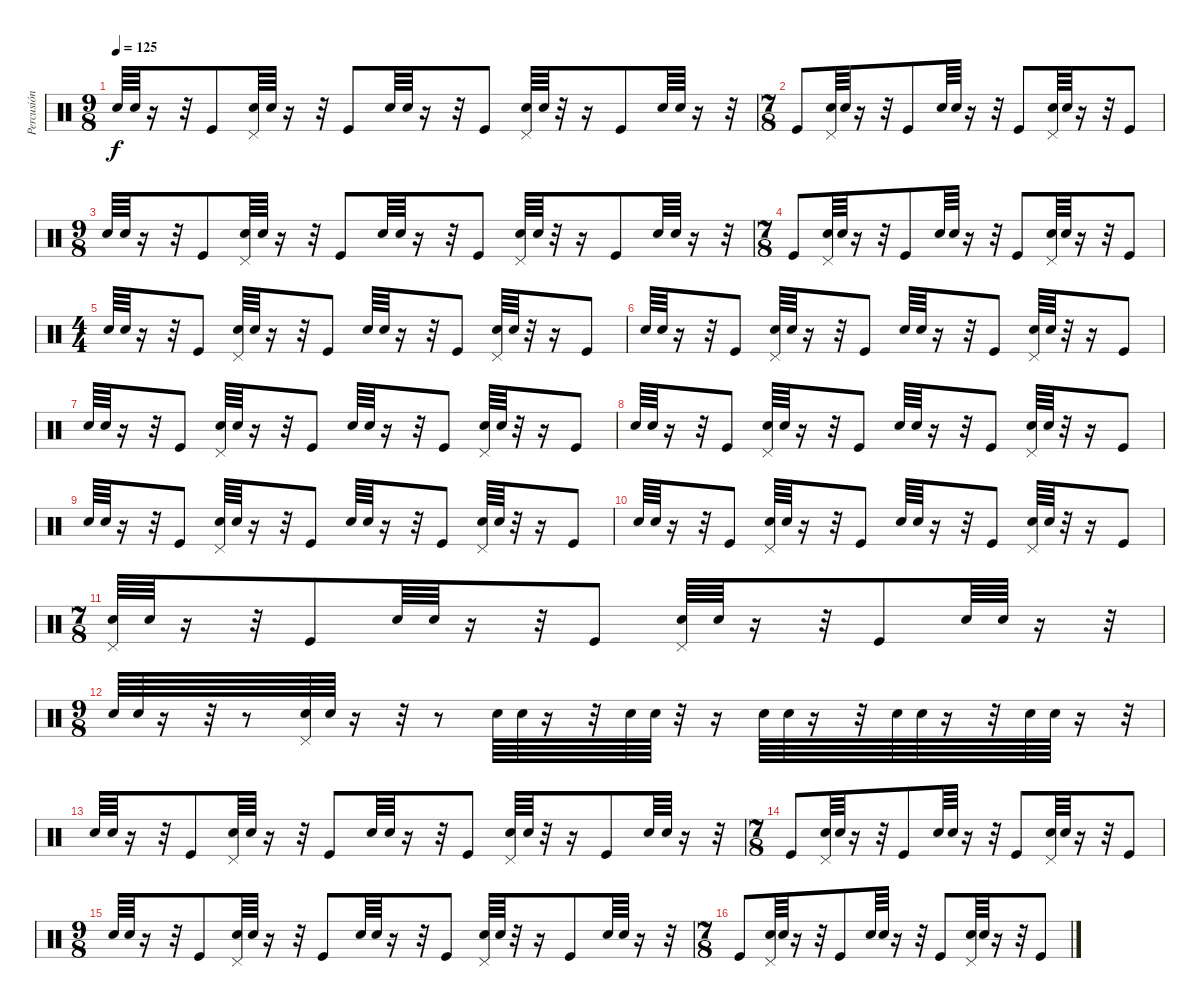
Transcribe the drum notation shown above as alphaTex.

\track ("Percusión" "Percusión") {instrument percussion}
\staff {score}
\articulation defaults
\ts (9 8)
\tempo 125
\clef neutral
\ks c "Electric Snare (hit)".64{dy f} "Electric Snare (hit)".64
r.16 r.32 "Kick (hit)".8 ("Pedal Hi-Hat (hit)" "Electric Snare (hit)").64 "Electric Snare (hit)".64 r.16 r.32 "Kick (hit)".8 "Electric Snare (hit)".64 "Electric Snare (hit)".64 r.16 r.32 "Kick (hit)".8 ("Pedal Hi-Hat (hit)" "Electric Snare (hit)").64 "Electric Snare (hit)".64 r.32 r.16 "Kick (hit)".8 "Electric Snare (hit)".64 "Electric Snare (hit)".64 r.16 r.32 |
\ts (7 8)
"Kick (hit)".8 ("Pedal Hi-Hat (hit)" "Electric Snare (hit)").64 "Electric Snare (hit)".64 r.16 r.32 "Kick (hit)".8 "Electric Snare (hit)".64 "Electric Snare (hit)".64 r.16 r.32 "Kick (hit)".8 ("Pedal Hi-Hat (hit)" "Electric Snare (hit)").64 "Electric Snare (hit)".64 r.16 r.32 "Kick (hit)".8 |
\ts (9 8)
"Electric Snare (hit)".64 "Electric Snare (hit)".64 r.16 r.32 "Kick (hit)".8 ("Pedal Hi-Hat (hit)" "Electric Snare (hit)").64 "Electric Snare (hit)".64 r.16 r.32 "Kick (hit)".8 "Electric Snare (hit)".64 "Electric Snare (hit)".64 r.16 r.32 "Kick (hit)".8 ("Pedal Hi-Hat (hit)" "Electric Snare (hit)").64 "Electric Snare (hit)".64 r.32 r.16 "Kick (hit)".8 "Electric Snare (hit)".64 "Electric Snare (hit)".64 r.16 r.32 |
\ts (7 8)
"Kick (hit)".8 ("Pedal Hi-Hat (hit)" "Electric Snare (hit)").64 "Electric Snare (hit)".64 r.16 r.32 "Kick (hit)".8 "Electric Snare (hit)".64 "Electric Snare (hit)".64 r.16 r.32 "Kick (hit)".8 ("Pedal Hi-Hat (hit)" "Electric Snare (hit)").64 "Electric Snare (hit)".64 r.16 r.32 "Kick (hit)".8 |
\ts (4 4)
"Electric Snare (hit)".64 "Electric Snare (hit)".64 r.16 r.32 "Kick (hit)".8 ("Pedal Hi-Hat (hit)" "Electric Snare (hit)").64 "Electric Snare (hit)".64 r.16 r.32 "Kick (hit)".8 "Electric Snare (hit)".64 "Electric Snare (hit)".64 r.16 r.32 "Kick (hit)".8 ("Pedal Hi-Hat (hit)" "Electric Snare (hit)").64 "Electric Snare (hit)".64 r.32 r.16 "Kick (hit)".8 |
"Electric Snare (hit)".64 "Electric Snare (hit)".64 r.16 r.32 "Kick (hit)".8 ("Pedal Hi-Hat (hit)" "Electric Snare (hit)").64 "Electric Snare (hit)".64 r.16 r.32 "Kick (hit)".8 "Electric Snare (hit)".64 "Electric Snare (hit)".64 r.16 r.32 "Kick (hit)".8 ("Pedal Hi-Hat (hit)" "Electric Snare (hit)").64 "Electric Snare (hit)".64 r.32 r.16 "Kick (hit)".8 |
"Electric Snare (hit)".64 "Electric Snare (hit)".64 r.16 r.32 "Kick (hit)".8 ("Pedal Hi-Hat (hit)" "Electric Snare (hit)").64 "Electric Snare (hit)".64 r.16 r.32 "Kick (hit)".8 "Electric Snare (hit)".64 "Electric Snare (hit)".64 r.16 r.32 "Kick (hit)".8 ("Pedal Hi-Hat (hit)" "Electric Snare (hit)").64 "Electric Snare (hit)".64 r.32 r.16 "Kick (hit)".8 |
"Electric Snare (hit)".64 "Electric Snare (hit)".64 r.16 r.32 "Kick (hit)".8 ("Pedal Hi-Hat (hit)" "Electric Snare (hit)").64 "Electric Snare (hit)".64 r.16 r.32 "Kick (hit)".8 "Electric Snare (hit)".64 "Electric Snare (hit)".64 r.16 r.32 "Kick (hit)".8 ("Pedal Hi-Hat (hit)" "Electric Snare (hit)").64 "Electric Snare (hit)".64 r.32 r.16 "Kick (hit)".8 |
"Electric Snare (hit)".64 "Electric Snare (hit)".64 r.16 r.32 "Kick (hit)".8 ("Pedal Hi-Hat (hit)" "Electric Snare (hit)").64 "Electric Snare (hit)".64 r.16 r.32 "Kick (hit)".8 "Electric Snare (hit)".64 "Electric Snare (hit)".64 r.16 r.32 "Kick (hit)".8 ("Pedal Hi-Hat (hit)" "Electric Snare (hit)").64 "Electric Snare (hit)".64 r.32 r.16 "Kick (hit)".8 |
"Electric Snare (hit)".64 "Electric Snare (hit)".64 r.16 r.32 "Kick (hit)".8 ("Pedal Hi-Hat (hit)" "Electric Snare (hit)").64 "Electric Snare (hit)".64 r.16 r.32 "Kick (hit)".8 "Electric Snare (hit)".64 "Electric Snare (hit)".64 r.16 r.32 "Kick (hit)".8 ("Pedal Hi-Hat (hit)" "Electric Snare (hit)").64 "Electric Snare (hit)".64 r.32 r.16 "Kick (hit)".8 |
\ts (7 8)
("Pedal Hi-Hat (hit)" "Electric Snare (hit)").64 "Electric Snare (hit)".64 r.16 r.32 "Kick (hit)".8 "Electric Snare (hit)".64 "Electric Snare (hit)".64 r.16 r.32 "Kick (hit)".8 ("Pedal Hi-Hat (hit)" "Electric Snare (hit)").64 "Electric Snare (hit)".64 r.16 r.32 "Kick (hit)".8 "Electric Snare (hit)".64 "Electric Snare (hit)".64 r.16 r.32 |
\ts (9 8)
"Electric Snare (hit)".64 "Electric Snare (hit)".64 r.16 r.32 r.8 ("Pedal Hi-Hat (hit)" "Electric Snare (hit)").64 "Electric Snare (hit)".64 r.16 r.32 r.8 "Electric Snare (hit)".64 "Electric Snare (hit)".64 r.16 r.32 "Electric Snare (hit)".64 "Electric Snare (hit)".64 r.32 r.16 "Electric Snare (hit)".64 "Electric Snare (hit)".64 r.16 r.32 "Electric Snare (hit)".64 "Electric Snare (hit)".64 r.16 r.32 "Electric Snare (hit)".64 "Electric Snare (hit)".64 r.16 r.32 |
"Electric Snare (hit)".64 "Electric Snare (hit)".64 r.16 r.32 "Kick (hit)".8 ("Pedal Hi-Hat (hit)" "Electric Snare (hit)").64 "Electric Snare (hit)".64 r.16 r.32 "Kick (hit)".8 "Electric Snare (hit)".64 "Electric Snare (hit)".64 r.16 r.32 "Kick (hit)".8 ("Pedal Hi-Hat (hit)" "Electric Snare (hit)").64 "Electric Snare (hit)".64 r.32 r.16 "Kick (hit)".8 "Electric Snare (hit)".64 "Electric Snare (hit)".64 r.16 r.32 |
\ts (7 8)
"Kick (hit)".8 ("Pedal Hi-Hat (hit)" "Electric Snare (hit)").64 "Electric Snare (hit)".64 r.16 r.32 "Kick (hit)".8 "Electric Snare (hit)".64 "Electric Snare (hit)".64 r.16 r.32 "Kick (hit)".8 ("Pedal Hi-Hat (hit)" "Electric Snare (hit)").64 "Electric Snare (hit)".64 r.16 r.32 "Kick (hit)".8 |
\ts (9 8)
"Electric Snare (hit)".64 "Electric Snare (hit)".64 r.16 r.32 "Kick (hit)".8 ("Pedal Hi-Hat (hit)" "Electric Snare (hit)").64 "Electric Snare (hit)".64 r.16 r.32 "Kick (hit)".8 "Electric Snare (hit)".64 "Electric Snare (hit)".64 r.16 r.32 "Kick (hit)".8 ("Pedal Hi-Hat (hit)" "Electric Snare (hit)").64 "Electric Snare (hit)".64 r.32 r.16 "Kick (hit)".8 "Electric Snare (hit)".64 "Electric Snare (hit)".64 r.16 r.32 |
\ts (7 8)
"Kick (hit)".8 ("Pedal Hi-Hat (hit)" "Electric Snare (hit)").64 "Electric Snare (hit)".64 r.16 r.32 "Kick (hit)".8 "Electric Snare (hit)".64 "Electric Snare (hit)".64 r.16 r.32 "Kick (hit)".8 ("Pedal Hi-Hat (hit)" "Electric Snare (hit)").64 "Electric Snare (hit)".64 r.16 r.32 "Kick (hit)".8
